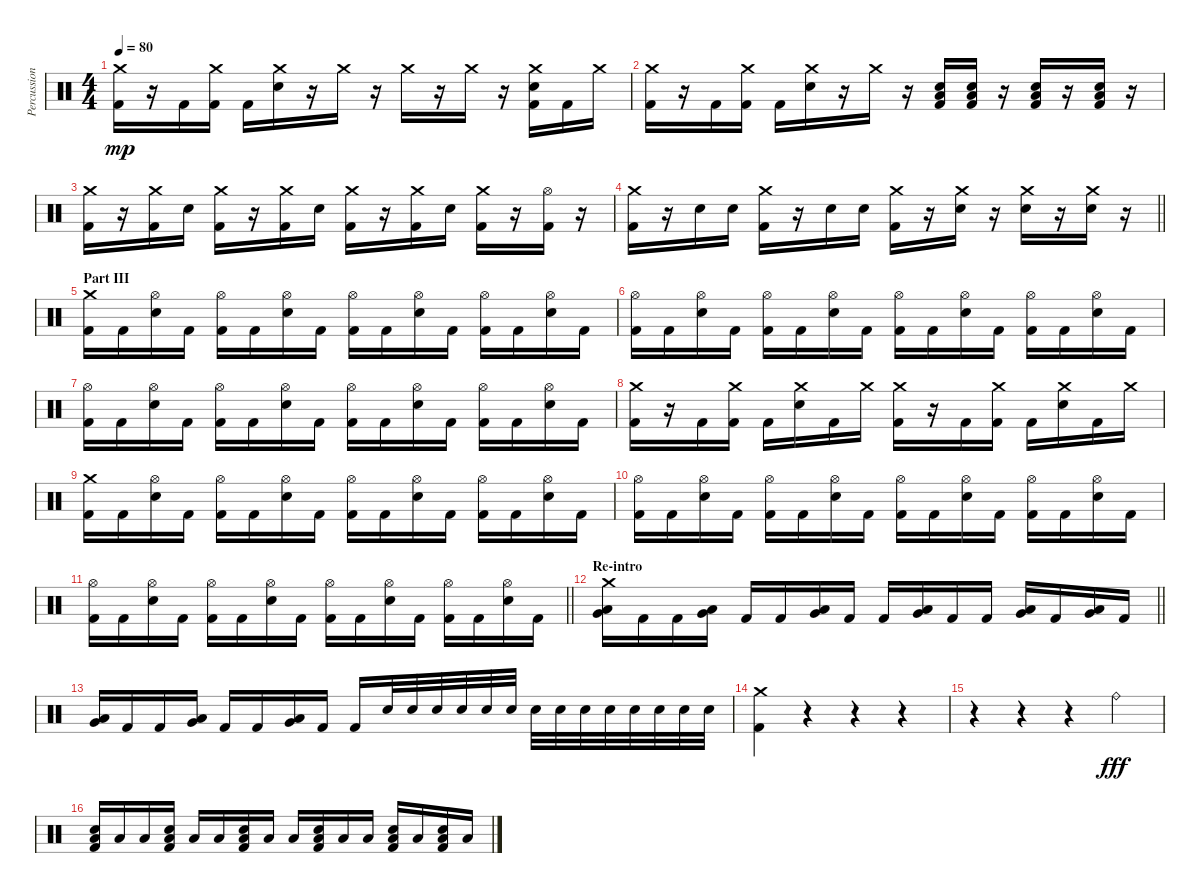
\track ("Percussion" "Percussion") {instrument percussion}
\staff {score}
\articulation defaults
\ts (4 4)
\tempo 80
\clef neutral
\ks c
("Crash medium (hit)" "Kick (hit) 2").16{dy mp} r.16 "Kick (hit) 2".16 ("Crash medium (hit)" "Kick (hit) 2").16 "Kick (hit) 2".16 ("Crash medium (hit)" "Electric Snare (hit)").16 r.16 "Crash medium (hit)".16 r.16 "Crash medium (hit)".16 r.16 "Crash medium (hit)".16 r.16 ("Crash medium (hit)" "Electric Snare (hit)" "Kick (hit) 2").16 "Kick (hit) 2".16 "Crash medium (hit)".16 |
("Crash medium (hit)" "Kick (hit) 2").16 r.16 "Kick (hit) 2".16 ("Crash medium (hit)" "Kick (hit) 2").16 "Kick (hit) 2".16 ("Crash medium (hit)" "Electric Snare (hit)").16 r.16 "Crash medium (hit)".16 r.16 ("Electric Snare (hit)" "Low Floor Tom (hit)" "Kick (hit) 2").16 ("Electric Snare (hit)" "Low Floor Tom (hit)" "Kick (hit) 2").16 r.16 ("Electric Snare (hit)" "Low Floor Tom (hit)" "Kick (hit) 2").16 r.16 ("Electric Snare (hit)" "Low Floor Tom (hit)" "Kick (hit) 2").16 r.16 |
("Crash medium (hit)" "Kick (hit) 2").16 r.16 ("Crash medium (hit)" "Kick (hit) 2").16 "Electric Snare (hit)".16 ("Crash medium (hit)" "Kick (hit) 2").16 r.16 ("Crash medium (hit)" "Kick (hit) 2").16 "Electric Snare (hit)".16 ("Crash medium (hit)" "Kick (hit) 2").16 r.16 ("Crash medium (hit)" "Kick (hit) 2").16 "Electric Snare (hit)".16 ("Crash medium (hit)" "Kick (hit) 2").16 r.16 ("Hi-Hat (open)" "Kick (hit) 2").16 r.16 |
\barLineRight lightlight
("Crash medium (hit)" "Kick (hit) 2").16 r.16 "Electric Snare (hit)".16 "Electric Snare (hit)".16 ("Crash medium (hit)" "Kick (hit) 2").16 r.16 "Electric Snare (hit)".16 "Electric Snare (hit)".16 ("Crash medium (hit)" "Kick (hit) 2").16 r.16 ("Crash medium (hit)" "Electric Snare (hit)").16 r.16 ("Crash medium (hit)" "Electric Snare (hit)").16 r.16 ("Crash medium (hit)" "Electric Snare (hit)").16 r.16 |
\section ("" "Part III")
("Crash medium (hit)" "Kick (hit) 2").16 "Kick (hit) 2".16 ("Hi-Hat (open)" "Electric Snare (hit)").16 "Kick (hit) 2".16 ("Hi-Hat (open)" "Kick (hit) 2").16 "Kick (hit) 2".16 ("Hi-Hat (open)" "Electric Snare (hit)").16 "Kick (hit) 2".16 ("Hi-Hat (open)" "Kick (hit) 2").16 "Kick (hit) 2".16 ("Hi-Hat (open)" "Electric Snare (hit)").16 "Kick (hit) 2".16 ("Hi-Hat (open)" "Kick (hit) 2").16 "Kick (hit) 2".16 ("Hi-Hat (open)" "Electric Snare (hit)").16 "Kick (hit) 2".16 |
("Hi-Hat (open)" "Kick (hit) 2").16 "Kick (hit) 2".16 ("Hi-Hat (open)" "Electric Snare (hit)").16 "Kick (hit) 2".16 ("Hi-Hat (open)" "Kick (hit) 2").16 "Kick (hit) 2".16 ("Hi-Hat (open)" "Electric Snare (hit)").16 "Kick (hit) 2".16 ("Hi-Hat (open)" "Kick (hit) 2").16 "Kick (hit) 2".16 ("Hi-Hat (open)" "Electric Snare (hit)").16 "Kick (hit) 2".16 ("Hi-Hat (open)" "Kick (hit) 2").16 "Kick (hit) 2".16 ("Hi-Hat (open)" "Electric Snare (hit)").16 "Kick (hit) 2".16 |
("Hi-Hat (open)" "Kick (hit) 2").16 "Kick (hit) 2".16 ("Hi-Hat (open)" "Electric Snare (hit)").16 "Kick (hit) 2".16 ("Hi-Hat (open)" "Kick (hit) 2").16 "Kick (hit) 2".16 ("Hi-Hat (open)" "Electric Snare (hit)").16 "Kick (hit) 2".16 ("Hi-Hat (open)" "Kick (hit) 2").16 "Kick (hit) 2".16 ("Hi-Hat (open)" "Electric Snare (hit)").16 "Kick (hit) 2".16 ("Hi-Hat (open)" "Kick (hit) 2").16 "Kick (hit) 2".16 ("Hi-Hat (open)" "Electric Snare (hit)").16 "Kick (hit) 2".16 |
("Crash medium (hit)" "Kick (hit) 2").16 r.16 "Kick (hit) 2".16 ("Crash medium (hit)" "Kick (hit) 2").16 "Kick (hit) 2".16 ("Crash medium (hit)" "Electric Snare (hit)").16 "Kick (hit) 2".16 "Crash medium (hit)".16 ("Crash medium (hit)" "Kick (hit) 2").16 r.16 "Kick (hit) 2".16 ("Crash medium (hit)" "Kick (hit) 2").16 "Kick (hit) 2".16 ("Crash medium (hit)" "Electric Snare (hit)").16 "Kick (hit) 2".16 "Crash medium (hit)".16 |
("Crash medium (hit)" "Kick (hit) 2").16 "Kick (hit) 2".16 ("Hi-Hat (open)" "Electric Snare (hit)").16 "Kick (hit) 2".16 ("Hi-Hat (open)" "Kick (hit) 2").16 "Kick (hit) 2".16 ("Hi-Hat (open)" "Electric Snare (hit)").16 "Kick (hit) 2".16 ("Hi-Hat (open)" "Kick (hit) 2").16 "Kick (hit) 2".16 ("Hi-Hat (open)" "Electric Snare (hit)").16 "Kick (hit) 2".16 ("Hi-Hat (open)" "Kick (hit) 2").16 "Kick (hit) 2".16 ("Hi-Hat (open)" "Electric Snare (hit)").16 "Kick (hit) 2".16 |
("Hi-Hat (open)" "Kick (hit) 2").16 "Kick (hit) 2".16 ("Hi-Hat (open)" "Electric Snare (hit)").16 "Kick (hit) 2".16 ("Hi-Hat (open)" "Kick (hit) 2").16 "Kick (hit) 2".16 ("Hi-Hat (open)" "Electric Snare (hit)").16 "Kick (hit) 2".16 ("Hi-Hat (open)" "Kick (hit) 2").16 "Kick (hit) 2".16 ("Hi-Hat (open)" "Electric Snare (hit)").16 "Kick (hit) 2".16 ("Hi-Hat (open)" "Kick (hit) 2").16 "Kick (hit) 2".16 ("Hi-Hat (open)" "Electric Snare (hit)").16 "Kick (hit) 2".16 |
\barLineRight lightlight
("Hi-Hat (open)" "Kick (hit) 2").16 "Kick (hit) 2".16 ("Hi-Hat (open)" "Electric Snare (hit)").16 "Kick (hit) 2".16 ("Hi-Hat (open)" "Kick (hit) 2").16 "Kick (hit) 2".16 ("Hi-Hat (open)" "Electric Snare (hit)").16 "Kick (hit) 2".16 ("Hi-Hat (open)" "Kick (hit) 2").16 "Kick (hit) 2".16 ("Hi-Hat (open)" "Electric Snare (hit)").16 "Kick (hit) 2".16 ("Hi-Hat (open)" "Kick (hit) 2").16 "Kick (hit) 2".16 ("Hi-Hat (open)" "Electric Snare (hit)").16 "Kick (hit) 2".16 |
\section ("" "Re-intro")
\barLineRight lightlight
("Crash medium (hit)" "Low Floor Tom (hit)" "Very Low Tom (hit)").16 "Kick (hit) 2".16 "Kick (hit) 2".16 ("Low Floor Tom (hit)" "Very Low Tom (hit)").16 "Kick (hit) 2".16 "Kick (hit) 2".16 ("Low Floor Tom (hit)" "Very Low Tom (hit)").16 "Kick (hit) 2".16 "Kick (hit) 2".16 ("Low Floor Tom (hit)" "Very Low Tom (hit)").16 "Kick (hit) 2".16 "Kick (hit) 2".16 ("Low Floor Tom (hit)" "Very Low Tom (hit)").16 "Kick (hit) 2".16 ("Low Floor Tom (hit)" "Very Low Tom (hit)").16 "Kick (hit) 2".16 |
("Low Floor Tom (hit)" "Very Low Tom (hit)").16 "Kick (hit) 2".16 "Kick (hit) 2".16 ("Low Floor Tom (hit)" "Very Low Tom (hit)").16 "Kick (hit) 2".16 "Kick (hit) 2".16 ("Low Floor Tom (hit)" "Very Low Tom (hit)").16 "Kick (hit) 2".16 "Kick (hit) 2".16 "Electric Snare (hit)".32 "Electric Snare (hit)".32 "Electric Snare (hit)".32 "Electric Snare (hit)".32 "Electric Snare (hit)".32 "Electric Snare (hit)".32 "Electric Snare (hit)".32 "Electric Snare (hit)".32 "Electric Snare (hit)".32 "Electric Snare (hit)".32 "Electric Snare (hit)".32 "Electric Snare (hit)".32 "Electric Snare (hit)".32 "Electric Snare (hit)".32 |
("Crash medium (hit)" "Kick (hit) 2").4 r.4 r.4 r.4 |
r.4 r.4 r.4 "Ride (bell)".4{dy fff} |
("Electric Snare (hit)" "Low Floor Tom (hit)" "Kick (hit) 2").16 "Low Floor Tom (hit)".16 "Low Floor Tom (hit)".16 ("Electric Snare (hit)" "Low Floor Tom (hit)" "Kick (hit) 2").16 "Low Floor Tom (hit)".16 "Low Floor Tom (hit)".16 ("Electric Snare (hit)" "Low Floor Tom (hit)" "Kick (hit) 2").16 "Low Floor Tom (hit)".16 "Low Floor Tom (hit)".16 ("Electric Snare (hit)" "Low Floor Tom (hit)" "Kick (hit) 2").16 "Low Floor Tom (hit)".16 "Low Floor Tom (hit)".16 ("Electric Snare (hit)" "Low Floor Tom (hit)" "Kick (hit) 2").16 "Low Floor Tom (hit)".16 ("Electric Snare (hit)" "Low Floor Tom (hit)" "Kick (hit) 2").16 "Low Floor Tom (hit)".16
